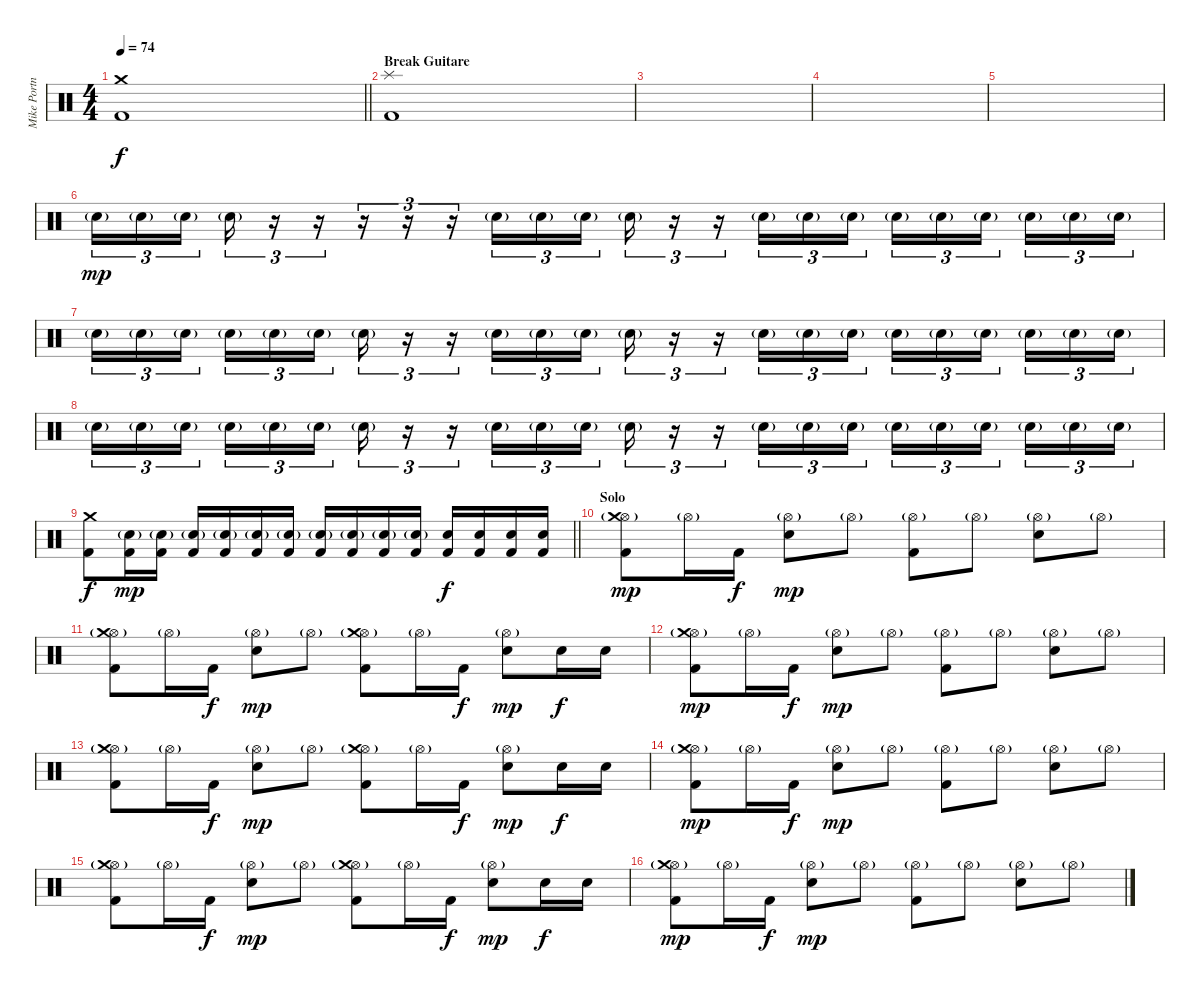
\track ("Mike Portnoy" "Mike Portn") {instrument percussion}
\staff {score}
\articulation defaults
\ts (4 4)
\tempo 74
\clef neutral
\barLineRight lightlight
\ks c
("Crash medium (hit)" "Kick (hit) 2").1{dy f} |
\section ("" "Break Guitare")
("Splash (hit)" "Kick (hit) 2").1 |
|
|
|
"Electric Snare (hit)"{g}.16{tu (3 2) dy mp} "Electric Snare (hit)"{g}.16{tu (3 2)} "Electric Snare (hit)"{g}.16{tu (3 2) beam splitsecondary} "Electric Snare (hit)"{g}.16{tu (3 2)} r.16{tu (3 2)} r.16{tu (3 2)} r.16{tu (3 2)} r.16{tu (3 2)} r.16{tu (3 2)} "Electric Snare (hit)"{g}.16{tu (3 2)} "Electric Snare (hit)"{g}.16{tu (3 2)} "Electric Snare (hit)"{g}.16{tu (3 2)} "Electric Snare (hit)"{g}.16{tu (3 2)} r.16{tu (3 2)} r.16{tu (3 2)} "Electric Snare (hit)"{g}.16{tu (3 2)} "Electric Snare (hit)"{g}.16{tu (3 2)} "Electric Snare (hit)"{g}.16{tu (3 2)} "Electric Snare (hit)"{g}.16{tu (3 2)} "Electric Snare (hit)"{g}.16{tu (3 2)} "Electric Snare (hit)"{g}.16{tu (3 2) beam splitsecondary} "Electric Snare (hit)"{g}.16{tu (3 2)} "Electric Snare (hit)"{g}.16{tu (3 2)} "Electric Snare (hit)"{g}.16{tu (3 2)} |
"Electric Snare (hit)"{g}.16{tu (3 2)} "Electric Snare (hit)"{g}.16{tu (3 2)} "Electric Snare (hit)"{g}.16{tu (3 2) beam splitsecondary} "Electric Snare (hit)"{g}.16{tu (3 2)} "Electric Snare (hit)"{g}.16{tu (3 2)} "Electric Snare (hit)"{g}.16{tu (3 2)} "Electric Snare (hit)"{g}.16{tu (3 2)} r.16{tu (3 2)} r.16{tu (3 2)} "Electric Snare (hit)"{g}.16{tu (3 2)} "Electric Snare (hit)"{g}.16{tu (3 2)} "Electric Snare (hit)"{g}.16{tu (3 2)} "Electric Snare (hit)"{g}.16{tu (3 2)} r.16{tu (3 2)} r.16{tu (3 2)} "Electric Snare (hit)"{g}.16{tu (3 2)} "Electric Snare (hit)"{g}.16{tu (3 2)} "Electric Snare (hit)"{g}.16{tu (3 2)} "Electric Snare (hit)"{g}.16{tu (3 2)} "Electric Snare (hit)"{g}.16{tu (3 2)} "Electric Snare (hit)"{g}.16{tu (3 2) beam splitsecondary} "Electric Snare (hit)"{g}.16{tu (3 2)} "Electric Snare (hit)"{g}.16{tu (3 2)} "Electric Snare (hit)"{g}.16{tu (3 2)} |
"Electric Snare (hit)"{g}.16{tu (3 2)} "Electric Snare (hit)"{g}.16{tu (3 2)} "Electric Snare (hit)"{g}.16{tu (3 2) beam splitsecondary} "Electric Snare (hit)"{g}.16{tu (3 2)} "Electric Snare (hit)"{g}.16{tu (3 2)} "Electric Snare (hit)"{g}.16{tu (3 2)} "Electric Snare (hit)"{g}.16{tu (3 2)} r.16{tu (3 2)} r.16{tu (3 2)} "Electric Snare (hit)"{g}.16{tu (3 2)} "Electric Snare (hit)"{g}.16{tu (3 2)} "Electric Snare (hit)"{g}.16{tu (3 2)} "Electric Snare (hit)"{g}.16{tu (3 2)} r.16{tu (3 2)} r.16{tu (3 2)} "Electric Snare (hit)"{g}.16{tu (3 2)} "Electric Snare (hit)"{g}.16{tu (3 2)} "Electric Snare (hit)"{g}.16{tu (3 2)} "Electric Snare (hit)"{g}.16{tu (3 2)} "Electric Snare (hit)"{g}.16{tu (3 2)} "Electric Snare (hit)"{g}.16{tu (3 2) beam splitsecondary} "Electric Snare (hit)"{g}.16{tu (3 2)} "Electric Snare (hit)"{g}.16{tu (3 2)} "Electric Snare (hit)"{g}.16{tu (3 2)} |
\barLineRight lightlight
("Crash medium (hit)" "Kick (hit) 2").8{dy f} ("Electric Snare (hit)"{g} "Kick (hit) 2").16{dy mp} ("Electric Snare (hit)"{g} "Kick (hit) 2").16 ("Electric Snare (hit)"{g} "Kick (hit) 2").16 ("Electric Snare (hit)"{g} "Kick (hit) 2").16 ("Electric Snare (hit)"{g} "Kick (hit) 2").16 ("Electric Snare (hit)"{g} "Kick (hit) 2").16 ("Electric Snare (hit)"{g} "Kick (hit) 2").16 ("Electric Snare (hit)"{g} "Kick (hit) 2").16 ("Electric Snare (hit)"{g} "Kick (hit) 2").16 ("Electric Snare (hit)"{g} "Kick (hit) 2").16 ("Electric Snare (hit)" "Kick (hit) 2").16{dy f} ("Electric Snare (hit)" "Kick (hit) 2").16 ("Electric Snare (hit)" "Kick (hit) 2").16 ("Electric Snare (hit)" "Kick (hit) 2").16 |
\section ("" "Solo")
("Hi-Hat (open)"{g} "Crash medium (hit)" "Kick (hit) 2").8{dy mp} "Hi-Hat (open)"{g}.16 "Kick (hit) 2".16{dy f} ("Hi-Hat (open)"{g} "Electric Snare (hit)").8{dy mp} "Hi-Hat (open)"{g}.8 ("Hi-Hat (open)"{g} "Kick (hit) 2").8 "Hi-Hat (open)"{g}.8 ("Hi-Hat (open)"{g} "Electric Snare (hit)").8 "Hi-Hat (open)"{g}.8 |
("Hi-Hat (open)"{g} "Crash medium (hit)" "Kick (hit) 2").8 "Hi-Hat (open)"{g}.16 "Kick (hit) 2".16{dy f} ("Hi-Hat (open)"{g} "Electric Snare (hit)").8{dy mp} "Hi-Hat (open)"{g}.8 ("Hi-Hat (open)"{g} "Crash medium (hit)" "Kick (hit) 2").8 "Hi-Hat (open)"{g}.16 "Kick (hit) 2".16{dy f} ("Hi-Hat (open)"{g} "Electric Snare (hit)").8{dy mp} "Electric Snare (hit)".16{dy f} "Electric Snare (hit)".16 |
("Hi-Hat (open)"{g} "Crash medium (hit)" "Kick (hit) 2").8{dy mp} "Hi-Hat (open)"{g}.16 "Kick (hit) 2".16{dy f} ("Hi-Hat (open)"{g} "Electric Snare (hit)").8{dy mp} "Hi-Hat (open)"{g}.8 ("Hi-Hat (open)"{g} "Kick (hit) 2").8 "Hi-Hat (open)"{g}.8 ("Hi-Hat (open)"{g} "Electric Snare (hit)").8 "Hi-Hat (open)"{g}.8 |
("Hi-Hat (open)"{g} "Crash medium (hit)" "Kick (hit) 2").8 "Hi-Hat (open)"{g}.16 "Kick (hit) 2".16{dy f} ("Hi-Hat (open)"{g} "Electric Snare (hit)").8{dy mp} "Hi-Hat (open)"{g}.8 ("Hi-Hat (open)"{g} "Crash medium (hit)" "Kick (hit) 2").8 "Hi-Hat (open)"{g}.16 "Kick (hit) 2".16{dy f} ("Hi-Hat (open)"{g} "Electric Snare (hit)").8{dy mp} "Electric Snare (hit)".16{dy f} "Electric Snare (hit)".16 |
("Hi-Hat (open)"{g} "Crash medium (hit)" "Kick (hit) 2").8{dy mp} "Hi-Hat (open)"{g}.16 "Kick (hit) 2".16{dy f} ("Hi-Hat (open)"{g} "Electric Snare (hit)").8{dy mp} "Hi-Hat (open)"{g}.8 ("Hi-Hat (open)"{g} "Kick (hit) 2").8 "Hi-Hat (open)"{g}.8 ("Hi-Hat (open)"{g} "Electric Snare (hit)").8 "Hi-Hat (open)"{g}.8 |
("Hi-Hat (open)"{g} "Crash medium (hit)" "Kick (hit) 2").8 "Hi-Hat (open)"{g}.16 "Kick (hit) 2".16{dy f} ("Hi-Hat (open)"{g} "Electric Snare (hit)").8{dy mp} "Hi-Hat (open)"{g}.8 ("Hi-Hat (open)"{g} "Crash medium (hit)" "Kick (hit) 2").8 "Hi-Hat (open)"{g}.16 "Kick (hit) 2".16{dy f} ("Hi-Hat (open)"{g} "Electric Snare (hit)").8{dy mp} "Electric Snare (hit)".16{dy f} "Electric Snare (hit)".16 |
("Hi-Hat (open)"{g} "Crash medium (hit)" "Kick (hit) 2").8{dy mp} "Hi-Hat (open)"{g}.16 "Kick (hit) 2".16{dy f} ("Hi-Hat (open)"{g} "Electric Snare (hit)").8{dy mp} "Hi-Hat (open)"{g}.8 ("Hi-Hat (open)"{g} "Kick (hit) 2").8 "Hi-Hat (open)"{g}.8 ("Hi-Hat (open)"{g} "Electric Snare (hit)").8 "Hi-Hat (open)"{g}.8
